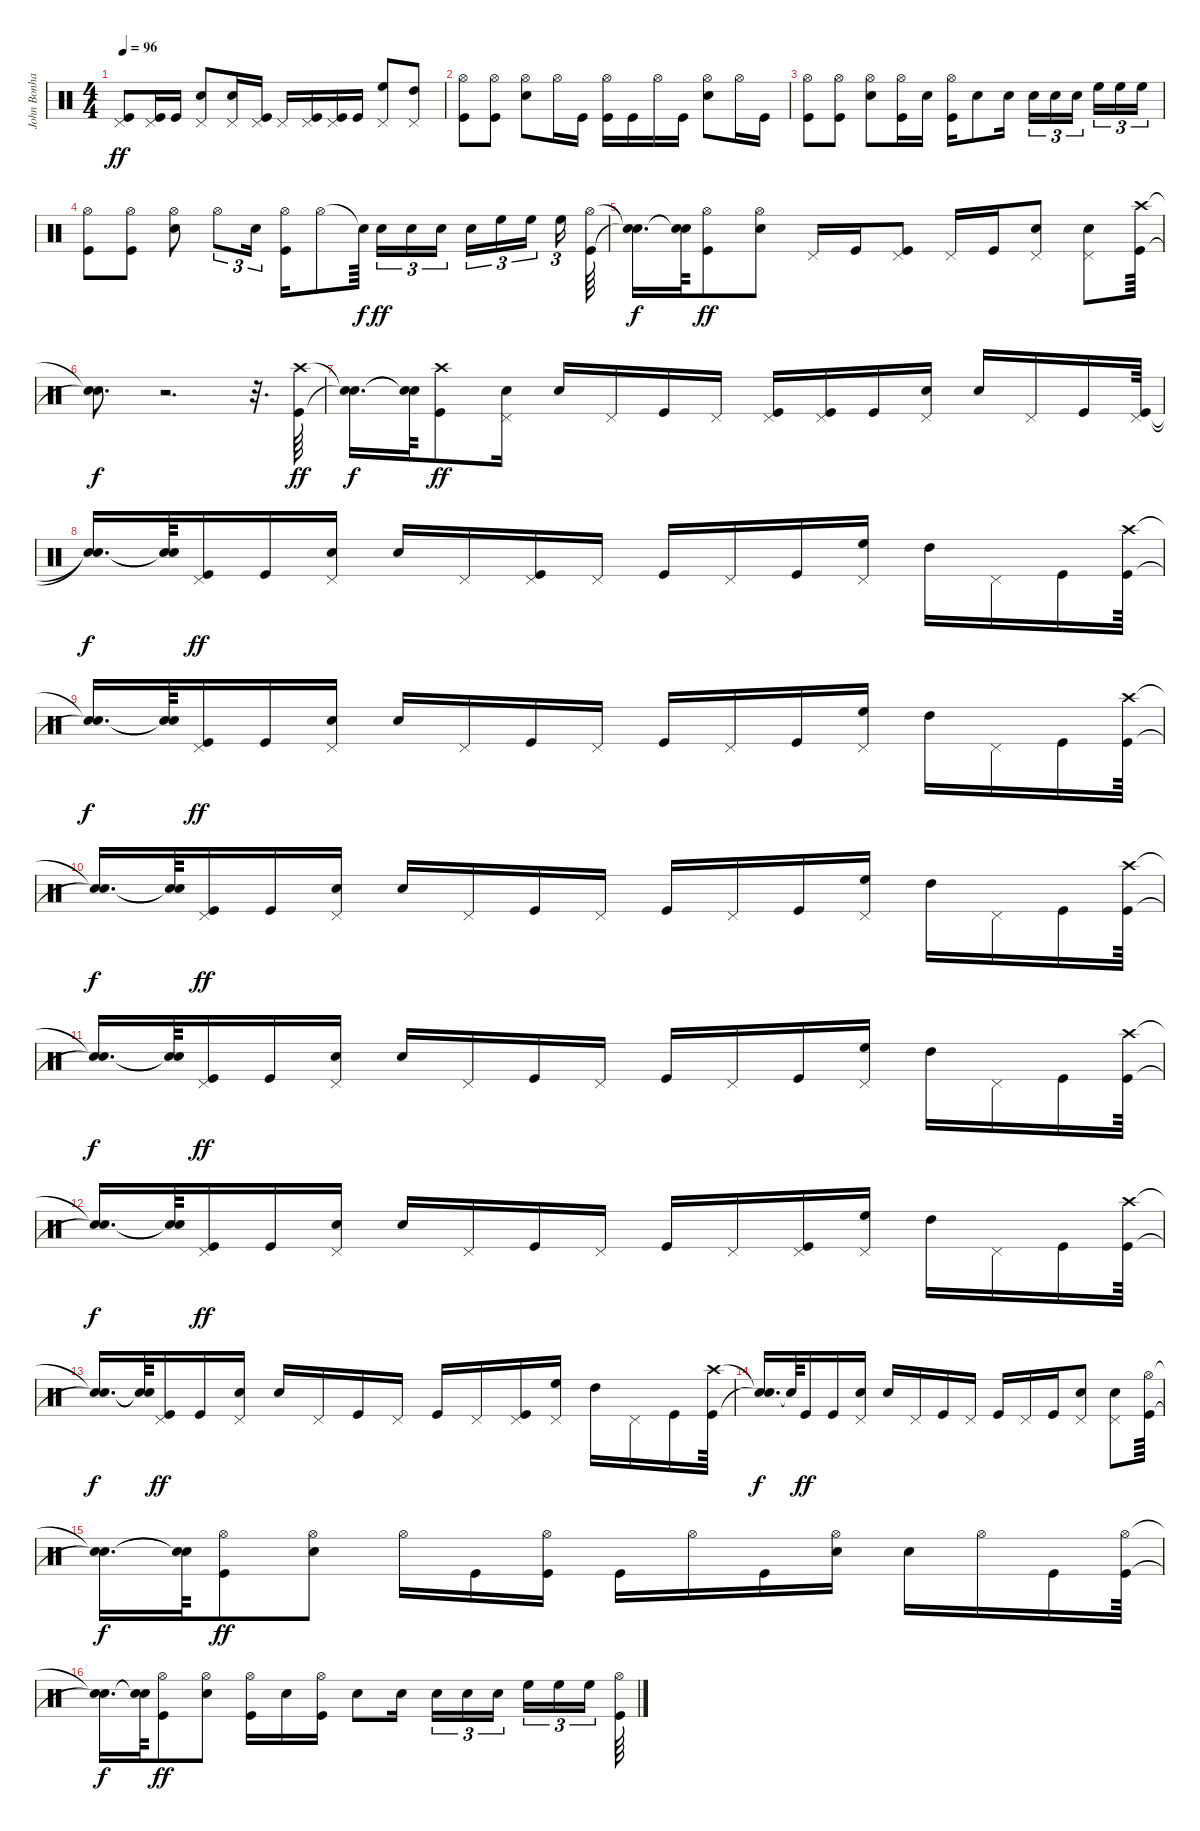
\track ("John Bonham - Drums" "John Bonha") {instrument percussion}
\staff {score}
\articulation defaults
\ts (4 4)
\tempo 96
\clef neutral
\ks c
("Pedal Hi-Hat (hit)" "Kick (hit)").8{dy ff} ("Pedal Hi-Hat (hit)" "Kick (hit)").16 "Kick (hit)".16 ("Pedal Hi-Hat (hit)" "Snare (hit) 2").8 ("Pedal Hi-Hat (hit)" "Snare (hit) 2").16 ("Pedal Hi-Hat (hit)" "Kick (hit)").16 "Pedal Hi-Hat (hit)".16 ("Pedal Hi-Hat (hit)" "Kick (hit)").16 ("Pedal Hi-Hat (hit)" "Kick (hit)").16 "Kick (hit)".16 ("Pedal Hi-Hat (hit)" "High Floor Tom (hit)").8 ("Pedal Hi-Hat (hit)" "High Tom (hit)").8 |
("Hi-Hat (open)" "Kick (hit)").8 ("Hi-Hat (open)" "Kick (hit)").8 ("Hi-Hat (open)" "Snare (hit) 2").8 "Hi-Hat (open)".16 "Kick (hit)".16 ("Hi-Hat (open)" "Kick (hit)").16 "Kick (hit)".16 "Hi-Hat (open)".16 "Kick (hit)".16 ("Hi-Hat (open)" "Snare (hit) 2").8 "Hi-Hat (open)".16 "Kick (hit)".16 |
("Hi-Hat (open)" "Kick (hit)").8 ("Hi-Hat (open)" "Kick (hit)").8 ("Hi-Hat (open)" "Snare (hit) 2").8 ("Hi-Hat (open)" "Kick (hit)").16 "Snare (hit) 2".16 ("Hi-Hat (open)" "Kick (hit)").16 "Snare (hit) 2".8 "Snare (hit) 2".16 "Snare (hit) 2".16{tu (3 2)} "Snare (hit) 2".16{tu (3 2)} "Snare (hit) 2".16{tu (3 2) beam splitsecondary} "High Floor Tom (hit)".16{tu (3 2)} "High Floor Tom (hit)".16{tu (3 2)} "High Floor Tom (hit)".16{tu (3 2)} |
("Hi-Hat (open)" "Kick (hit)").8 ("Hi-Hat (open)" "Kick (hit)").8 ("Hi-Hat (open)" "Snare (hit) 2").8 "Hi-Hat (open)".8{tu (3 2)} "Snare (hit) 2".16{tu (3 2)} ("Hi-Hat (open)" "Kick (hit)").16 "Hi-Hat (open)".8 "Snare (hit)"{t}.64{dy f beam splitsecondary} "Snare (hit) 2".16{tu (3 2) dy ff} "Snare (hit) 2".16{tu (3 2)} "Snare (hit) 2".16{tu (3 2) beam splitsecondary} "Snare (hit) 2".16{tu (3 2)} "High Floor Tom (hit)".16{tu (3 2)} "High Floor Tom (hit)".16{tu (3 2) beam splitsecondary} "High Floor Tom (hit)".16{tu (3 2)} ("Hi-Hat (open)" "Kick (hit)").64 |
("Snare (hit)"{t} "Snare (hit)"{t}).16{d dy f} ("Snare (hit)"{t} "Snare (hit)"{t}).64 ("Hi-Hat (open)" "Kick (hit)").8{dy ff} ("Hi-Hat (open)" "Snare (hit) 2").8 "Pedal Hi-Hat (hit)".16 "Kick (hit)".16 ("Pedal Hi-Hat (hit)" "Kick (hit)").8 "Pedal Hi-Hat (hit)".16 "Kick (hit)".16 ("Pedal Hi-Hat (hit)" "Snare (hit) 2").8 ("Pedal Hi-Hat (hit)" "Snare (hit) 2").8 ("Crash high (hit)" "Kick (hit)").64 |
("Snare (hit)"{t} "Snare (hit)"{t}).8{d dy f} r.2{d} r.32{d} ("Crash high (hit)" "Kick (hit)").64{dy ff} |
("Snare (hit)"{t} "Snare (hit)"{t}).16{d dy f} ("Snare (hit)"{t} "Snare (hit)"{t}).64 ("Crash high (hit)" "Kick (hit)").8{dy ff} ("Pedal Hi-Hat (hit)" "Snare (hit) 2").16 "Snare (hit) 2".16 "Pedal Hi-Hat (hit)".16 "Kick (hit)".16 "Pedal Hi-Hat (hit)".16 ("Pedal Hi-Hat (hit)" "Kick (hit)").16 ("Pedal Hi-Hat (hit)" "Kick (hit)").16 "Kick (hit)".16 ("Pedal Hi-Hat (hit)" "Snare (hit) 2").16 "Snare (hit) 2".16 "Pedal Hi-Hat (hit)".16 "Kick (hit)".16 ("Pedal Hi-Hat (hit)" "Kick (hit)").64 |
("Snare (hit)"{t} "Snare (hit)"{t}).16{d dy f} ("Snare (hit)"{t} "Snare (hit)"{t}).64 ("Pedal Hi-Hat (hit)" "Kick (hit)").16{dy ff} "Kick (hit)".16 ("Pedal Hi-Hat (hit)" "Snare (hit) 2").16 "Snare (hit) 2".16 "Pedal Hi-Hat (hit)".16 ("Pedal Hi-Hat (hit)" "Kick (hit)").16 "Pedal Hi-Hat (hit)".16 "Kick (hit)".16 "Pedal Hi-Hat (hit)".16 "Kick (hit)".16 ("Pedal Hi-Hat (hit)" "High Floor Tom (hit)").16 "High Tom (hit)".16 "Pedal Hi-Hat (hit)".16 "Kick (hit)".16 ("Crash high (hit)" "Kick (hit)").64 |
("Snare (hit)"{t} "Snare (hit)"{t}).16{d dy f} ("Snare (hit)"{t} "Snare (hit)"{t}).64 ("Pedal Hi-Hat (hit)" "Kick (hit)").16{dy ff} "Kick (hit)".16 ("Pedal Hi-Hat (hit)" "Snare (hit) 2").16 "Snare (hit) 2".16 "Pedal Hi-Hat (hit)".16 "Kick (hit)".16 "Pedal Hi-Hat (hit)".16 "Kick (hit)".16 "Pedal Hi-Hat (hit)".16 "Kick (hit)".16 ("Pedal Hi-Hat (hit)" "High Floor Tom (hit)").16 "High Tom (hit)".16 "Pedal Hi-Hat (hit)".16 "Kick (hit)".16 ("Crash high (hit)" "Kick (hit)").64 |
("Snare (hit)"{t} "Snare (hit)"{t}).16{d dy f} ("Snare (hit)"{t} "Snare (hit)"{t}).64 ("Pedal Hi-Hat (hit)" "Kick (hit)").16{dy ff} "Kick (hit)".16 ("Pedal Hi-Hat (hit)" "Snare (hit) 2").16 "Snare (hit) 2".16 "Pedal Hi-Hat (hit)".16 "Kick (hit)".16 "Pedal Hi-Hat (hit)".16 "Kick (hit)".16 "Pedal Hi-Hat (hit)".16 "Kick (hit)".16 ("Pedal Hi-Hat (hit)" "High Floor Tom (hit)").16 "High Tom (hit)".16 "Pedal Hi-Hat (hit)".16 "Kick (hit)".16 ("Crash high (hit)" "Kick (hit)").64 |
("Snare (hit)"{t} "Snare (hit)"{t}).16{d dy f} ("Snare (hit)"{t} "Snare (hit)"{t}).64 ("Pedal Hi-Hat (hit)" "Kick (hit)").16{dy ff} "Kick (hit)".16 ("Pedal Hi-Hat (hit)" "Snare (hit) 2").16 "Snare (hit) 2".16 "Pedal Hi-Hat (hit)".16 "Kick (hit)".16 "Pedal Hi-Hat (hit)".16 "Kick (hit)".16 "Pedal Hi-Hat (hit)".16 "Kick (hit)".16 ("Pedal Hi-Hat (hit)" "High Floor Tom (hit)").16 "High Tom (hit)".16 "Pedal Hi-Hat (hit)".16 "Kick (hit)".16 ("Crash high (hit)" "Kick (hit)").64 |
("Snare (hit)"{t} "Snare (hit)"{t}).16{d dy f} ("Snare (hit)"{t} "Snare (hit)"{t}).64 ("Pedal Hi-Hat (hit)" "Kick (hit)").16{dy ff} "Kick (hit)".16 ("Pedal Hi-Hat (hit)" "Snare (hit) 2").16 "Snare (hit) 2".16 "Pedal Hi-Hat (hit)".16 "Kick (hit)".16 "Pedal Hi-Hat (hit)".16 "Kick (hit)".16 "Pedal Hi-Hat (hit)".16 ("Pedal Hi-Hat (hit)" "Kick (hit)").16 ("Pedal Hi-Hat (hit)" "High Floor Tom (hit)").16 "High Tom (hit)".16 "Pedal Hi-Hat (hit)".16 "Kick (hit)".16 ("Crash high (hit)" "Kick (hit)").64 |
("Snare (hit)"{t} "Snare (hit)"{t}).16{d dy f} ("Snare (hit)"{t} "Snare (hit)"{t}).64 ("Pedal Hi-Hat (hit)" "Kick (hit)").16{dy ff} "Kick (hit)".16 ("Pedal Hi-Hat (hit)" "Snare (hit) 2").16 "Snare (hit) 2".16 "Pedal Hi-Hat (hit)".16 "Kick (hit)".16 "Pedal Hi-Hat (hit)".16 "Kick (hit)".16 "Pedal Hi-Hat (hit)".16 ("Pedal Hi-Hat (hit)" "Kick (hit)").16 ("Pedal Hi-Hat (hit)" "High Floor Tom (hit)").16 "High Tom (hit)".16 "Pedal Hi-Hat (hit)".16 "Kick (hit)".16 ("Crash high (hit)" "Kick (hit)").64 |
("Snare (hit)"{t} "Snare (hit)"{t}).16{d dy f} "Snare (hit)"{t}.64 "Kick (hit)".16{dy ff} "Kick (hit)".16 ("Pedal Hi-Hat (hit)" "Snare (hit) 2").16 "Snare (hit) 2".16 "Pedal Hi-Hat (hit)".16 "Kick (hit)".16 "Pedal Hi-Hat (hit)".16 "Kick (hit)".16 "Pedal Hi-Hat (hit)".16 "Kick (hit)".16 ("Pedal Hi-Hat (hit)" "Snare (hit) 2").8 ("Pedal Hi-Hat (hit)" "Snare (hit) 2").8 ("Hi-Hat (open)" "Kick (hit)").64 |
("Snare (hit)"{t} "Snare (hit)"{t}).16{d dy f} ("Snare (hit)"{t} "Snare (hit)"{t}).64 ("Hi-Hat (open)" "Kick (hit)").8{dy ff} ("Hi-Hat (open)" "Snare (hit) 2").8 "Hi-Hat (open)".16 "Kick (hit)".16 ("Hi-Hat (open)" "Kick (hit)").16 "Kick (hit)".16 "Hi-Hat (open)".16 "Kick (hit)".16 ("Hi-Hat (open)" "Snare (hit) 2").16 "Snare (hit) 2".16 "Hi-Hat (open)".16 "Kick (hit)".16 ("Hi-Hat (open)" "Kick (hit)").64 |
("Snare (hit)"{t} "Snare (hit)"{t}).16{d dy f} ("Snare (hit)"{t} "Snare (hit)"{t}).64 ("Hi-Hat (open)" "Kick (hit)").8{dy ff} ("Hi-Hat (open)" "Snare (hit) 2").8 ("Hi-Hat (open)" "Kick (hit)").16 "Snare (hit) 2".16 ("Hi-Hat (open)" "Kick (hit)").16 "Snare (hit) 2".8 "Snare (hit) 2".16 "Snare (hit) 2".16{tu (3 2)} "Snare (hit) 2".16{tu (3 2)} "Snare (hit) 2".16{tu (3 2) beam splitsecondary} "High Floor Tom (hit)".16{tu (3 2)} "High Floor Tom (hit)".16{tu (3 2)} "High Floor Tom (hit)".16{tu (3 2) beam splitsecondary} ("Hi-Hat (open)" "Kick (hit)").64
